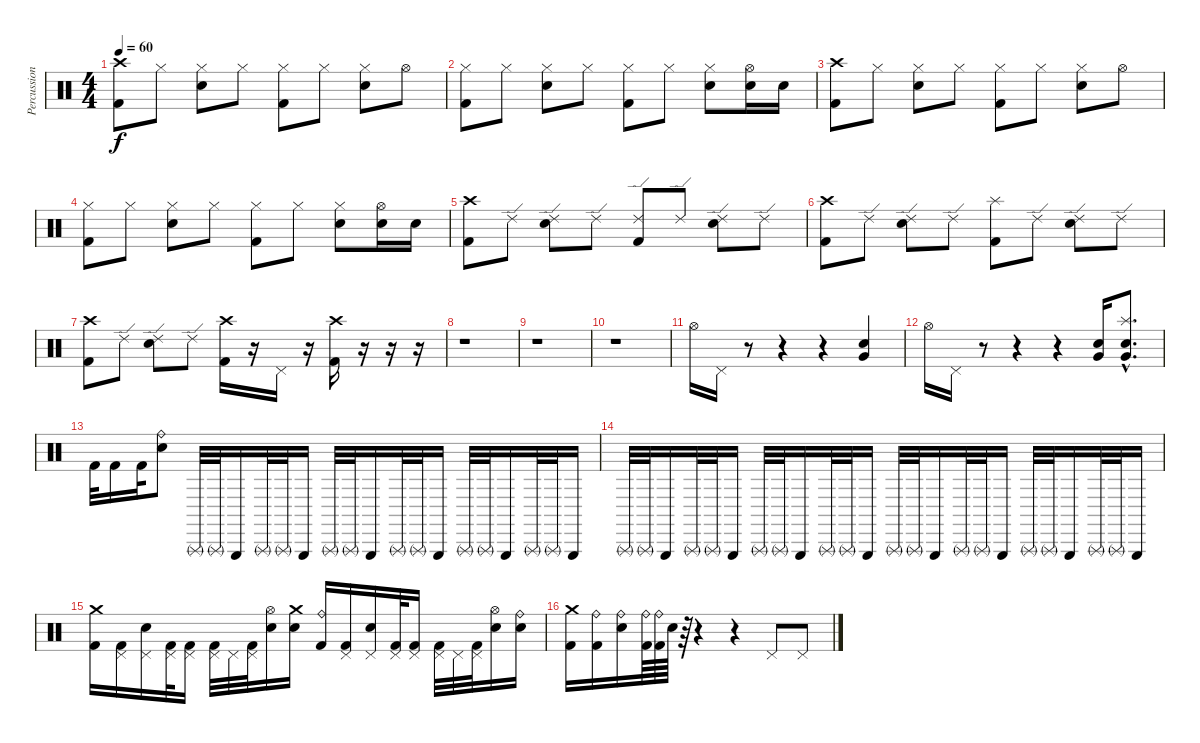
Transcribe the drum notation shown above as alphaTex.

\track ("Percussions" "Percussion") {instrument percussion}
\staff {score}
\articulation defaults
\ts (4 4)
\tempo 60
\clef neutral
\ks c
("Crash high (hit)" "Kick (hit) 2").8{dy f} "Hi-Hat (closed)".8 ("Hi-Hat (closed)" "Electric Snare (hit)").8 "Hi-Hat (closed)".8 ("Hi-Hat (closed)" "Kick (hit) 2").8 "Hi-Hat (closed)".8 ("Hi-Hat (closed)" "Electric Snare (hit)").8 "Hi-Hat (open)".8 |
("Hi-Hat (closed)" "Kick (hit) 2").8 "Hi-Hat (closed)".8 ("Hi-Hat (closed)" "Electric Snare (hit)").8 "Hi-Hat (closed)".8 ("Hi-Hat (closed)" "Kick (hit) 2").8 "Hi-Hat (closed)".8 ("Hi-Hat (closed)" "Electric Snare (hit)").8 ("Hi-Hat (open)" "Electric Snare (hit)").16 "Electric Snare (hit)".16 |
("Crash high (hit)" "Kick (hit) 2").8 "Hi-Hat (closed)".8 ("Hi-Hat (closed)" "Electric Snare (hit)").8 "Hi-Hat (closed)".8 ("Hi-Hat (closed)" "Kick (hit) 2").8 "Hi-Hat (closed)".8 ("Hi-Hat (closed)" "Electric Snare (hit)").8 "Hi-Hat (open)".8 |
("Hi-Hat (closed)" "Kick (hit) 2").8 "Hi-Hat (closed)".8 ("Hi-Hat (closed)" "Electric Snare (hit)").8 "Hi-Hat (closed)".8 ("Hi-Hat (closed)" "Kick (hit) 2").8 "Hi-Hat (closed)".8 ("Hi-Hat (closed)" "Electric Snare (hit)").8 ("Hi-Hat (open)" "Electric Snare (hit)").16 "Electric Snare (hit)".16 |
("Crash high (hit)" "Kick (hit) 2").8 "Ride (edge) 2".8 ("Ride (edge) 2" "Electric Snare (hit)").8 "Ride (edge) 2".8 ("Ride (edge) 2" "Kick (hit) 2").8 "Ride (edge) 2".8 ("Ride (edge) 2" "Electric Snare (hit)").8 "Ride (edge) 2".8 |
("Crash high (hit)" "Kick (hit) 2").8 "Ride (edge) 2".8 ("Ride (edge) 2" "Electric Snare (hit)").8 "Ride (edge) 2".8 ("Splash (hit)" "Kick (hit) 2").8 "Ride (edge) 2".8 ("Ride (edge) 2" "Electric Snare (hit)").8 "Ride (edge) 2".8 |
("Crash high (hit)" "Kick (hit) 2").8 "Ride (edge) 2".8 ("Ride (edge) 2" "Electric Snare (hit)").8 "Ride (edge) 2".8 ("Crash high (hit)" "Kick (hit) 2").16 r.16 "Pedal Hi-Hat (hit)".16 r.16 ("Crash high (hit)" "Kick (hit) 2").16 r.16 r.16 r.16 |
r.1 |
r.1 |
r.1 |
"Hi-Hat (open)".16 "Pedal Hi-Hat (hit)".16 r.8 r.4 r.4 ("Very Low Tom (hit)" "Electric Snare (hit)").4 |
"Hi-Hat (open)".16 "Pedal Hi-Hat (hit)".16 r.8 r.4 r.4 ("Very Low Tom (hit)" "Electric Snare (hit)").16 ("Splash (hit)"{hac} "Very Low Tom (hit)"{hac} "Electric Snare (hit)"{hac}).8{d} |
"Kick (hit) 2".32 "Kick (hit) 2".16 "Kick (hit) 2".32 ("Ride (bell)" "Electric Snare (hit)").8 "Triangle (rnute)".32 "Triangle (rnute)".32 "Triangle (hit)".16 "Triangle (rnute)".32 "Triangle (rnute)".32 "Triangle (hit)".16 "Triangle (rnute)".32 "Triangle (rnute)".32 "Triangle (hit)".16 "Triangle (rnute)".32 "Triangle (rnute)".32 "Triangle (hit)".16 "Triangle (rnute)".32 "Triangle (rnute)".32 "Triangle (hit)".16 "Triangle (rnute)".32 "Triangle (rnute)".32 "Triangle (hit)".16 |
"Triangle (rnute)".32 "Triangle (rnute)".32 "Triangle (hit)".16 "Triangle (rnute)".32 "Triangle (rnute)".32 "Triangle (hit)".16 "Triangle (rnute)".32 "Triangle (rnute)".32 "Triangle (hit)".16 "Triangle (rnute)".32 "Triangle (rnute)".32 "Triangle (hit)".16 "Triangle (rnute)".32 "Triangle (rnute)".32 "Triangle (hit)".16 "Triangle (rnute)".32 "Triangle (rnute)".32 "Triangle (hit)".16 "Triangle (rnute)".32 "Triangle (rnute)".32 "Triangle (hit)".16 "Triangle (rnute)".32 "Triangle (rnute)".32 "Triangle (hit)".16 |
("Crash medium (hit)" "Kick (hit) 2").16 ("Pedal Hi-Hat (hit)" "Kick (hit) 2").16 ("Pedal Hi-Hat (hit)" "Electric Snare (hit)").16 ("Pedal Hi-Hat (hit)" "Kick (hit) 2").32 ("Pedal Hi-Hat (hit)" "Kick (hit) 2").16 ("Pedal Hi-Hat (hit)" "Kick (hit) 2").32 "Pedal Hi-Hat (hit)".32 ("Pedal Hi-Hat (hit)" "Kick (hit) 2").32 ("Hi-Hat (open)" "Electric Snare (hit)").16 ("Crash medium (hit)" "Electric Snare (hit)").16 ("Ride (bell)" "Kick (hit) 2").16 ("Pedal Hi-Hat (hit)" "Kick (hit) 2").16 ("Pedal Hi-Hat (hit)" "Electric Snare (hit)").16 ("Pedal Hi-Hat (hit)" "Kick (hit) 2").32 ("Pedal Hi-Hat (hit)" "Kick (hit) 2").16 ("Pedal Hi-Hat (hit)" "Kick (hit) 2").32 "Pedal Hi-Hat (hit)".32 ("Pedal Hi-Hat (hit)" "Kick (hit) 2").32 ("Hi-Hat (open)" "Electric Snare (hit)").16 ("Ride (bell)" "Electric Snare (hit)").16 |
("Crash medium (hit)" "Kick (hit) 2").16 ("Ride (bell)" "Kick (hit) 2").16 ("Ride (bell)" "Electric Snare (hit)").16 ("Ride (bell)" "Kick (hit) 2").64 ("Ride (bell)" "Kick (hit) 2").64 "Electric Snare (hit)".64 r.64 r.4 r.4 "Pedal Hi-Hat (hit)".8 "Pedal Hi-Hat (hit)".8
